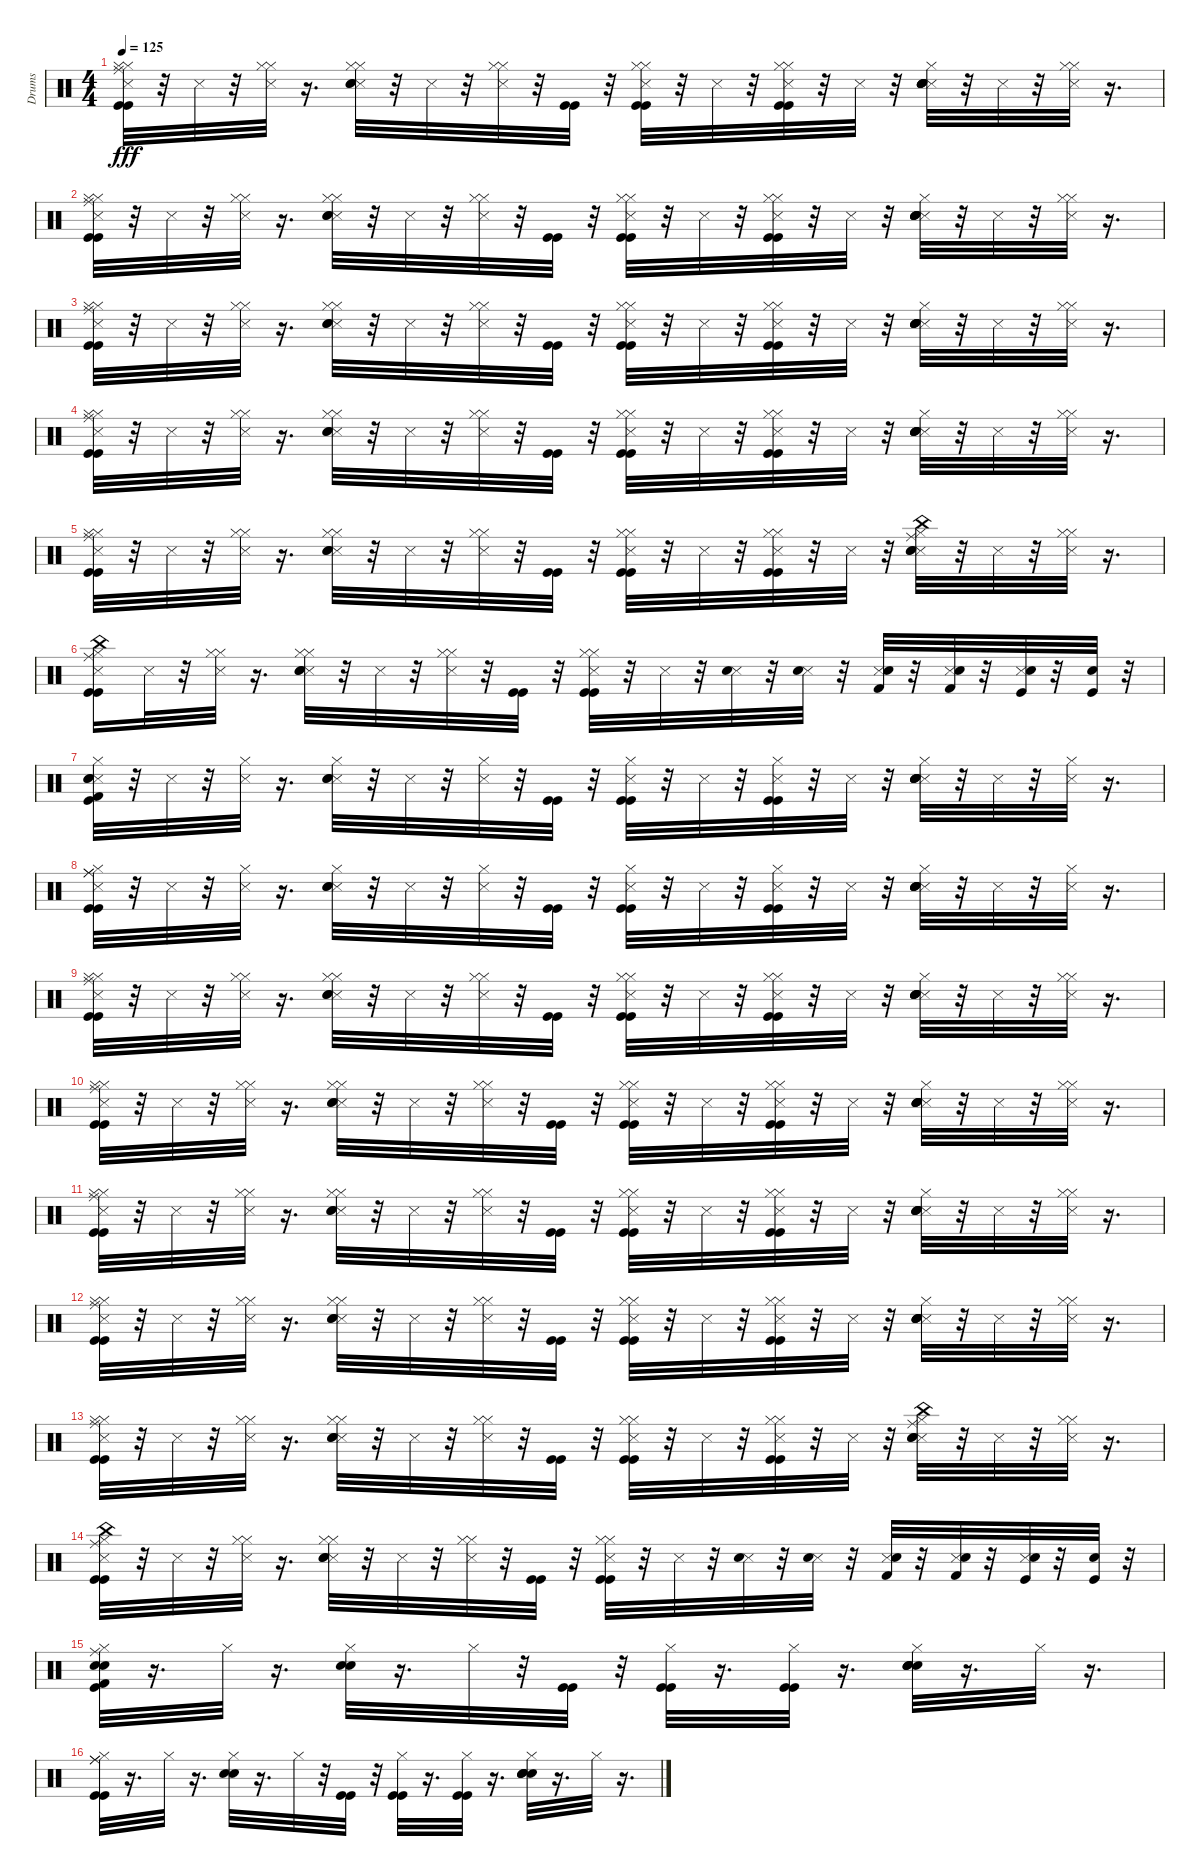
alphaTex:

\track ("Drums" "Drums") {instrument percussion}
\staff {score}
\articulation defaults
\ts (4 4)
\tempo 125
\clef neutral
\ks c
("Snare (side stick) 3" "Kick (hit)" "Hi-Hat (closed)" "Ride (middle)" "Kick (hit)" "Hi-Hat (closed)").32{dy fff} r.32 "Snare (side stick) 3".32 r.32 ("Snare (side stick) 3" "Hi-Hat (closed)" "Hi-Hat (closed)").32 r.16{d} ("Snare (side stick) 3" "Snare (hit) 2" "Electric Snare (hit)" "Hi-Hat (closed)" "Hi-Hat (closed)").32 r.32 "Snare (side stick) 3".32 r.32 ("Snare (side stick) 3" "Hi-Hat (closed)" "Hi-Hat (closed)").32 r.32 ("Kick (hit)" "Kick (hit)").32 r.32 ("Snare (side stick) 3" "Kick (hit)" "Hi-Hat (closed)" "Kick (hit)" "Hi-Hat (closed)").32 r.32 "Snare (side stick) 3".32 r.32 ("Snare (side stick) 3" "Kick (hit)" "Hi-Hat (closed)" "Kick (hit)" "Hi-Hat (closed)").32 r.32 "Snare (side stick) 3".32 r.32 ("Snare (side stick) 3" "Snare (hit) 2" "Electric Snare (hit)" "Hi-Hat (closed)" "Snare (hit) 2" "Electric Snare (hit)").32 r.32 "Snare (side stick) 3".32 r.32 ("Snare (side stick) 3" "Hi-Hat (closed)" "Hi-Hat (closed)").32 r.16{d} |
("Snare (side stick) 3" "Kick (hit)" "Hi-Hat (closed)" "Ride (middle)" "Kick (hit)" "Hi-Hat (closed)").32 r.32 "Snare (side stick) 3".32 r.32 ("Snare (side stick) 3" "Hi-Hat (closed)" "Hi-Hat (closed)").32 r.16{d} ("Snare (side stick) 3" "Snare (hit) 2" "Electric Snare (hit)" "Hi-Hat (closed)" "Hi-Hat (closed)").32 r.32 "Snare (side stick) 3".32 r.32 ("Snare (side stick) 3" "Hi-Hat (closed)" "Hi-Hat (closed)").32 r.32 ("Kick (hit)" "Kick (hit)").32 r.32 ("Snare (side stick) 3" "Kick (hit)" "Hi-Hat (closed)" "Kick (hit)" "Hi-Hat (closed)").32 r.32 "Snare (side stick) 3".32 r.32 ("Snare (side stick) 3" "Kick (hit)" "Hi-Hat (closed)" "Kick (hit)" "Hi-Hat (closed)").32 r.32 "Snare (side stick) 3".32 r.32 ("Snare (side stick) 3" "Snare (hit) 2" "Electric Snare (hit)" "Hi-Hat (closed)" "Snare (hit) 2" "Electric Snare (hit)").32 r.32 "Snare (side stick) 3".32 r.32 ("Snare (side stick) 3" "Hi-Hat (closed)" "Hi-Hat (closed)").32 r.16{d} |
("Snare (side stick) 3" "Kick (hit)" "Hi-Hat (closed)" "Ride (middle)" "Kick (hit)" "Hi-Hat (closed)").32 r.32 "Snare (side stick) 3".32 r.32 ("Snare (side stick) 3" "Hi-Hat (closed)" "Hi-Hat (closed)").32 r.16{d} ("Snare (side stick) 3" "Snare (hit) 2" "Electric Snare (hit)" "Hi-Hat (closed)" "Hi-Hat (closed)").32 r.32 "Snare (side stick) 3".32 r.32 ("Snare (side stick) 3" "Hi-Hat (closed)" "Hi-Hat (closed)").32 r.32 ("Kick (hit)" "Kick (hit)").32 r.32 ("Snare (side stick) 3" "Kick (hit)" "Hi-Hat (closed)" "Kick (hit)" "Hi-Hat (closed)").32 r.32 "Snare (side stick) 3".32 r.32 ("Snare (side stick) 3" "Kick (hit)" "Hi-Hat (closed)" "Kick (hit)" "Hi-Hat (closed)").32 r.32 "Snare (side stick) 3".32 r.32 ("Snare (side stick) 3" "Snare (hit) 2" "Electric Snare (hit)" "Hi-Hat (closed)" "Snare (hit) 2" "Electric Snare (hit)").32 r.32 "Snare (side stick) 3".32 r.32 ("Snare (side stick) 3" "Hi-Hat (closed)" "Hi-Hat (closed)").32 r.16{d} |
("Snare (side stick) 3" "Kick (hit)" "Hi-Hat (closed)" "Ride (middle)" "Kick (hit)" "Hi-Hat (closed)").32 r.32 "Snare (side stick) 3".32 r.32 ("Snare (side stick) 3" "Hi-Hat (closed)" "Hi-Hat (closed)").32 r.16{d} ("Snare (side stick) 3" "Snare (hit) 2" "Electric Snare (hit)" "Hi-Hat (closed)" "Hi-Hat (closed)").32 r.32 "Snare (side stick) 3".32 r.32 ("Snare (side stick) 3" "Hi-Hat (closed)" "Hi-Hat (closed)").32 r.32 ("Kick (hit)" "Kick (hit)").32 r.32 ("Snare (side stick) 3" "Kick (hit)" "Hi-Hat (closed)" "Kick (hit)" "Hi-Hat (closed)").32 r.32 "Snare (side stick) 3".32 r.32 ("Snare (side stick) 3" "Kick (hit)" "Hi-Hat (closed)" "Kick (hit)" "Hi-Hat (closed)").32 r.32 "Snare (side stick) 3".32 r.32 ("Snare (side stick) 3" "Snare (hit) 2" "Electric Snare (hit)" "Hi-Hat (closed)" "Snare (hit) 2" "Electric Snare (hit)").32 r.32 "Snare (side stick) 3".32 r.32 ("Snare (side stick) 3" "Hi-Hat (closed)" "Hi-Hat (closed)").32 r.16{d} |
("Snare (side stick) 3" "Kick (hit)" "Hi-Hat (closed)" "Ride (middle)" "Kick (hit)" "Hi-Hat (closed)").32 r.32 "Snare (side stick) 3".32 r.32 ("Snare (side stick) 3" "Hi-Hat (closed)" "Hi-Hat (closed)").32 r.16{d} ("Snare (side stick) 3" "Electric Snare (hit)" "Snare (hit) 2" "Hi-Hat (closed)" "Hi-Hat (closed)").32 r.32 "Snare (side stick) 3".32 r.32 ("Snare (side stick) 3" "Hi-Hat (closed)" "Hi-Hat (closed)").32 r.32 ("Kick (hit)" "Kick (hit)").32 r.32 ("Snare (side stick) 3" "Kick (hit)" "Hi-Hat (closed)" "Kick (hit)" "Hi-Hat (closed)").32 r.32 "Snare (side stick) 3".32 r.32 ("Snare (side stick) 3" "Kick (hit)" "Hi-Hat (closed)" "Kick (hit)" "Hi-Hat (closed)").32 r.32 "Snare (side stick) 3".32 r.32 ("Snare (side stick) 3" "Ride (middle)" "China (hit)" "Snare (hit) 2" "Electric Snare (hit)" "Hi-Hat (closed)").32 r.32 "Snare (side stick) 3".32 r.32 ("Snare (side stick) 3" "Hi-Hat (closed)" "Hi-Hat (closed)").32 r.16{d} |
("Snare (side stick) 3" "China (hit)" "Kick (hit)" "Hi-Hat (closed)" "Ride (middle)" "Kick (hit)").16 "Snare (side stick) 3".32 r.32 ("Snare (side stick) 3" "Hi-Hat (closed)" "Hi-Hat (closed)").32 r.16{d} ("Snare (side stick) 3" "Snare (hit) 2" "Electric Snare (hit)" "Hi-Hat (closed)" "Hi-Hat (closed)").32 r.32 "Snare (side stick) 3".32 r.32 ("Snare (side stick) 3" "Hi-Hat (closed)" "Hi-Hat (closed)").32 r.32 ("Kick (hit)" "Kick (hit)").32 r.32 ("Snare (side stick) 3" "Kick (hit)" "Hi-Hat (closed)" "Kick (hit)" "Hi-Hat (closed)").32 r.32 "Snare (side stick) 3".32 r.32 ("Snare (side stick) 3" "Electric Snare (hit)").32 r.32 ("Snare (side stick) 3" "Electric Snare (hit)").32 r.32 ("Snare (side stick) 3" "Kick (hit) 2" "Electric Snare (hit)").32 r.32 ("Snare (side stick) 3" "Kick (hit) 2" "Electric Snare (hit)").32 r.32 ("Snare (side stick) 3" "Snare (hit) 2" "Kick (hit)").32 r.32 ("Snare (hit) 2" "Kick (hit)").32 r.32 |
("Snare (side stick) 3" "Kick (hit) 2" "Snare (hit) 2" "Electric Snare (hit)" "Hi-Hat (closed)" "Kick (hit)").32 r.32 "Snare (side stick) 3".32 r.32 ("Snare (side stick) 3" "Hi-Hat (closed)").32 r.16{d} ("Snare (side stick) 3" "Snare (hit) 2" "Electric Snare (hit)" "Hi-Hat (closed)").32 r.32 "Snare (side stick) 3".32 r.32 ("Snare (side stick) 3" "Hi-Hat (closed)").32 r.32 ("Kick (hit)" "Kick (hit)").32 r.32 ("Snare (side stick) 3" "Hi-Hat (closed)" "Kick (hit)" "Kick (hit)").32 r.32 "Snare (side stick) 3".32 r.32 ("Snare (side stick) 3" "Hi-Hat (closed)" "Kick (hit)" "Kick (hit)").32 r.32 "Snare (side stick) 3".32 r.32 ("Snare (side stick) 3" "Hi-Hat (closed)" "Snare (hit) 2" "Electric Snare (hit)" "Snare (hit) 2" "Electric Snare (hit)").32 r.32 "Snare (side stick) 3".32 r.32 ("Snare (side stick) 3" "Hi-Hat (closed)").32 r.16{d} |
("Snare (side stick) 3" "Hi-Hat (closed)" "Kick (hit)" "Ride (middle)" "Kick (hit)" "Ride (middle)").32 r.32 "Snare (side stick) 3".32 r.32 ("Snare (side stick) 3" "Hi-Hat (closed)").32 r.16{d} ("Snare (side stick) 3" "Snare (hit) 2" "Electric Snare (hit)" "Hi-Hat (closed)").32 r.32 "Snare (side stick) 3".32 r.32 ("Snare (side stick) 3" "Hi-Hat (closed)").32 r.32 ("Kick (hit)" "Kick (hit)").32 r.32 ("Snare (side stick) 3" "Hi-Hat (closed)" "Kick (hit)" "Kick (hit)").32 r.32 "Snare (side stick) 3".32 r.32 ("Snare (side stick) 3" "Hi-Hat (closed)" "Kick (hit)" "Kick (hit)").32 r.32 "Snare (side stick) 3".32 r.32 ("Snare (side stick) 3" "Hi-Hat (closed)" "Snare (hit) 2" "Electric Snare (hit)" "Snare (hit) 2" "Electric Snare (hit)").32 r.32 "Snare (side stick) 3".32 r.32 ("Snare (side stick) 3" "Hi-Hat (closed)").32 r.16{d} |
("Snare (side stick) 3" "Kick (hit)" "Hi-Hat (closed)" "Ride (middle)" "Kick (hit)" "Hi-Hat (closed)").32 r.32 "Snare (side stick) 3".32 r.32 ("Snare (side stick) 3" "Hi-Hat (closed)" "Hi-Hat (closed)").32 r.16{d} ("Snare (side stick) 3" "Snare (hit) 2" "Electric Snare (hit)" "Hi-Hat (closed)" "Hi-Hat (closed)").32 r.32 "Snare (side stick) 3".32 r.32 ("Snare (side stick) 3" "Hi-Hat (closed)" "Hi-Hat (closed)").32 r.32 ("Kick (hit)" "Kick (hit)").32 r.32 ("Snare (side stick) 3" "Kick (hit)" "Hi-Hat (closed)" "Kick (hit)" "Hi-Hat (closed)").32 r.32 "Snare (side stick) 3".32 r.32 ("Snare (side stick) 3" "Kick (hit)" "Hi-Hat (closed)" "Kick (hit)" "Hi-Hat (closed)").32 r.32 "Snare (side stick) 3".32 r.32 ("Snare (side stick) 3" "Snare (hit) 2" "Electric Snare (hit)" "Hi-Hat (closed)" "Snare (hit) 2" "Electric Snare (hit)").32 r.32 "Snare (side stick) 3".32 r.32 ("Snare (side stick) 3" "Hi-Hat (closed)" "Hi-Hat (closed)").32 r.16{d} |
("Snare (side stick) 3" "Kick (hit)" "Hi-Hat (closed)" "Ride (middle)" "Kick (hit)" "Hi-Hat (closed)").32 r.32 "Snare (side stick) 3".32 r.32 ("Snare (side stick) 3" "Hi-Hat (closed)" "Hi-Hat (closed)").32 r.16{d} ("Snare (side stick) 3" "Snare (hit) 2" "Electric Snare (hit)" "Hi-Hat (closed)" "Hi-Hat (closed)").32 r.32 "Snare (side stick) 3".32 r.32 ("Snare (side stick) 3" "Hi-Hat (closed)" "Hi-Hat (closed)").32 r.32 ("Kick (hit)" "Kick (hit)").32 r.32 ("Snare (side stick) 3" "Kick (hit)" "Hi-Hat (closed)" "Kick (hit)" "Hi-Hat (closed)").32 r.32 "Snare (side stick) 3".32 r.32 ("Snare (side stick) 3" "Kick (hit)" "Hi-Hat (closed)" "Kick (hit)" "Hi-Hat (closed)").32 r.32 "Snare (side stick) 3".32 r.32 ("Snare (side stick) 3" "Snare (hit) 2" "Electric Snare (hit)" "Hi-Hat (closed)" "Snare (hit) 2" "Electric Snare (hit)").32 r.32 "Snare (side stick) 3".32 r.32 ("Snare (side stick) 3" "Hi-Hat (closed)" "Hi-Hat (closed)").32 r.16{d} |
("Snare (side stick) 3" "Kick (hit)" "Hi-Hat (closed)" "Ride (middle)" "Kick (hit)" "Hi-Hat (closed)").32 r.32 "Snare (side stick) 3".32 r.32 ("Snare (side stick) 3" "Hi-Hat (closed)" "Hi-Hat (closed)").32 r.16{d} ("Snare (side stick) 3" "Snare (hit) 2" "Electric Snare (hit)" "Hi-Hat (closed)" "Hi-Hat (closed)").32 r.32 "Snare (side stick) 3".32 r.32 ("Snare (side stick) 3" "Hi-Hat (closed)" "Hi-Hat (closed)").32 r.32 ("Kick (hit)" "Kick (hit)").32 r.32 ("Snare (side stick) 3" "Kick (hit)" "Hi-Hat (closed)" "Kick (hit)" "Hi-Hat (closed)").32 r.32 "Snare (side stick) 3".32 r.32 ("Snare (side stick) 3" "Kick (hit)" "Hi-Hat (closed)" "Kick (hit)" "Hi-Hat (closed)").32 r.32 "Snare (side stick) 3".32 r.32 ("Snare (side stick) 3" "Snare (hit) 2" "Electric Snare (hit)" "Hi-Hat (closed)" "Snare (hit) 2" "Electric Snare (hit)").32 r.32 "Snare (side stick) 3".32 r.32 ("Snare (side stick) 3" "Hi-Hat (closed)" "Hi-Hat (closed)").32 r.16{d} |
("Snare (side stick) 3" "Kick (hit)" "Hi-Hat (closed)" "Ride (middle)" "Kick (hit)" "Hi-Hat (closed)").32 r.32 "Snare (side stick) 3".32 r.32 ("Snare (side stick) 3" "Hi-Hat (closed)" "Hi-Hat (closed)").32 r.16{d} ("Snare (side stick) 3" "Snare (hit) 2" "Electric Snare (hit)" "Hi-Hat (closed)" "Hi-Hat (closed)").32 r.32 "Snare (side stick) 3".32 r.32 ("Snare (side stick) 3" "Hi-Hat (closed)" "Hi-Hat (closed)").32 r.32 ("Kick (hit)" "Kick (hit)").32 r.32 ("Snare (side stick) 3" "Kick (hit)" "Hi-Hat (closed)" "Kick (hit)" "Hi-Hat (closed)").32 r.32 "Snare (side stick) 3".32 r.32 ("Snare (side stick) 3" "Kick (hit)" "Hi-Hat (closed)" "Kick (hit)" "Hi-Hat (closed)").32 r.32 "Snare (side stick) 3".32 r.32 ("Snare (side stick) 3" "Snare (hit) 2" "Electric Snare (hit)" "Hi-Hat (closed)" "Snare (hit) 2" "Electric Snare (hit)").32 r.32 "Snare (side stick) 3".32 r.32 ("Snare (side stick) 3" "Hi-Hat (closed)" "Hi-Hat (closed)").32 r.16{d} |
("Snare (side stick) 3" "Kick (hit)" "Hi-Hat (closed)" "Ride (middle)" "Kick (hit)" "Hi-Hat (closed)").32 r.32 "Snare (side stick) 3".32 r.32 ("Snare (side stick) 3" "Hi-Hat (closed)" "Hi-Hat (closed)").32 r.16{d} ("Snare (side stick) 3" "Electric Snare (hit)" "Snare (hit) 2" "Hi-Hat (closed)" "Hi-Hat (closed)").32 r.32 "Snare (side stick) 3".32 r.32 ("Snare (side stick) 3" "Hi-Hat (closed)" "Hi-Hat (closed)").32 r.32 ("Kick (hit)" "Kick (hit)").32 r.32 ("Snare (side stick) 3" "Kick (hit)" "Hi-Hat (closed)" "Kick (hit)" "Hi-Hat (closed)").32 r.32 "Snare (side stick) 3".32 r.32 ("Snare (side stick) 3" "Kick (hit)" "Hi-Hat (closed)" "Kick (hit)" "Hi-Hat (closed)").32 r.32 "Snare (side stick) 3".32 r.32 ("Snare (side stick) 3" "Ride (middle)" "China (hit)" "Snare (hit) 2" "Electric Snare (hit)" "Hi-Hat (closed)").32 r.32 "Snare (side stick) 3".32 r.32 ("Snare (side stick) 3" "Hi-Hat (closed)" "Hi-Hat (closed)").32 r.16{d} |
("Snare (side stick) 3" "China (hit)" "Kick (hit)" "Hi-Hat (closed)" "Ride (middle)" "Kick (hit)").32 r.32 "Snare (side stick) 3".32 r.32 ("Snare (side stick) 3" "Hi-Hat (closed)" "Hi-Hat (closed)").32 r.16{d} ("Snare (side stick) 3" "Snare (hit) 2" "Electric Snare (hit)" "Hi-Hat (closed)" "Hi-Hat (closed)").32 r.32 "Snare (side stick) 3".32 r.32 ("Snare (side stick) 3" "Hi-Hat (closed)" "Hi-Hat (closed)").32 r.32 ("Kick (hit)" "Kick (hit)").32 r.32 ("Snare (side stick) 3" "Kick (hit)" "Hi-Hat (closed)" "Kick (hit)" "Hi-Hat (closed)").32 r.32 "Snare (side stick) 3".32 r.32 ("Snare (side stick) 3" "Electric Snare (hit)").32 r.32 ("Snare (side stick) 3" "Electric Snare (hit)").32 r.32 ("Snare (side stick) 3" "Kick (hit) 2" "Electric Snare (hit)").32 r.32 ("Snare (side stick) 3" "Kick (hit) 2" "Electric Snare (hit)").32 r.32 ("Snare (side stick) 3" "Snare (hit) 2" "Kick (hit)").32 r.32 ("Snare (hit) 2" "Kick (hit)").32 r.32 |
("Kick (hit) 2" "Snare (hit) 2" "Electric Snare (hit)" "Hi-Hat (closed)" "Kick (hit)" "Ride (middle)").32 r.16{d} "Hi-Hat (closed)".32 r.16{d} ("Snare (hit) 2" "Electric Snare (hit)" "Hi-Hat (closed)").32 r.16{d} "Hi-Hat (closed)".32 r.32 ("Kick (hit)" "Kick (hit)").32 r.32 ("Hi-Hat (closed)" "Kick (hit)" "Kick (hit)").32 r.16{d} ("Hi-Hat (closed)" "Kick (hit)" "Kick (hit)").32 r.16{d} ("Hi-Hat (closed)" "Snare (hit) 2" "Electric Snare (hit)" "Snare (hit) 2" "Electric Snare (hit)").32 r.16{d} "Hi-Hat (closed)".32 r.16{d} |
("Hi-Hat (closed)" "Kick (hit)" "Ride (middle)" "Kick (hit)" "Ride (middle)").32 r.16{d} "Hi-Hat (closed)".32 r.16{d} ("Snare (hit) 2" "Electric Snare (hit)" "Hi-Hat (closed)").32 r.16{d} "Hi-Hat (closed)".32 r.32 ("Kick (hit)" "Kick (hit)").32 r.32 ("Hi-Hat (closed)" "Kick (hit)" "Kick (hit)").32 r.16{d} ("Hi-Hat (closed)" "Kick (hit)" "Kick (hit)").32 r.16{d} ("Hi-Hat (closed)" "Snare (hit) 2" "Electric Snare (hit)" "Snare (hit) 2" "Electric Snare (hit)").32 r.16{d} "Hi-Hat (closed)".32 r.16{d}
